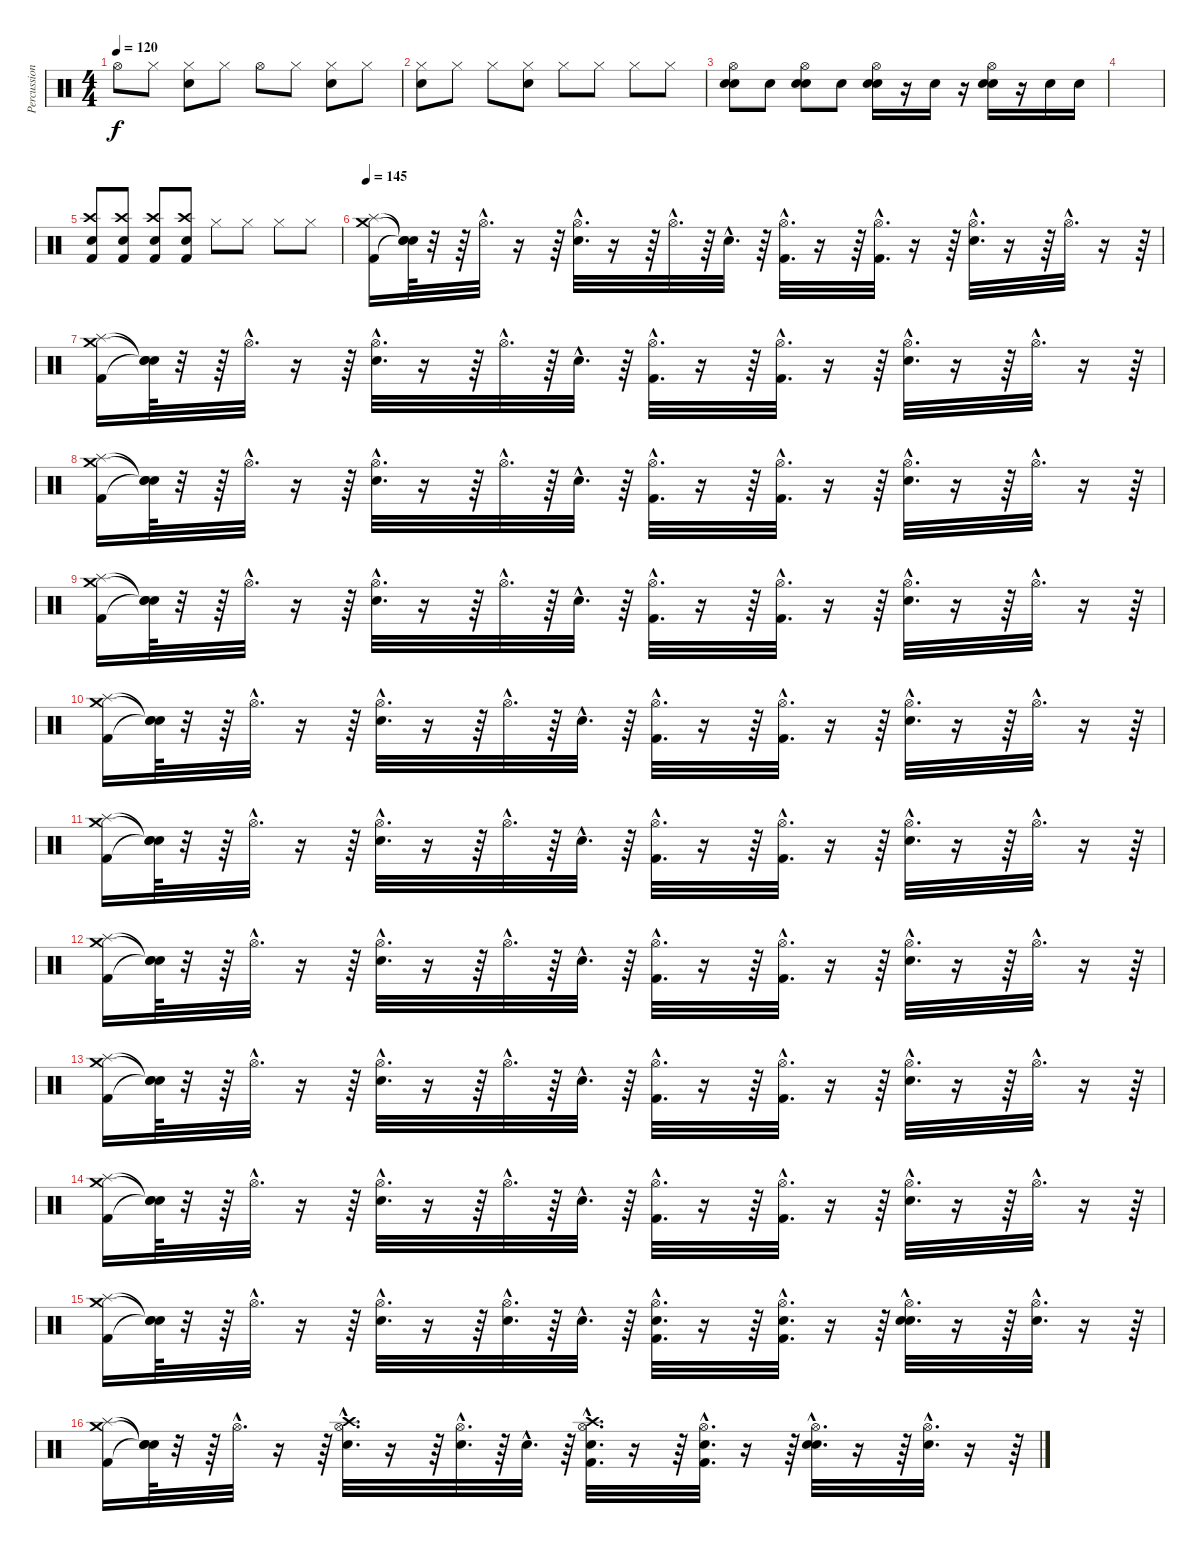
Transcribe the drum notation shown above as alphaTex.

\track ("Percussions" "Percussion") {instrument percussion}
\staff {score}
\articulation defaults
\ts (4 4)
\tempo 120
\clef neutral
\ks c "Hi-Hat (open)".8{dy f} "Hi-Hat (closed)".8
("Hi-Hat (closed)" "Snare (hit) 2").8 "Hi-Hat (closed)".8 "Hi-Hat (open)".8 "Hi-Hat (closed)".8 ("Hi-Hat (closed)" "Snare (hit) 2").8 "Hi-Hat (closed)".8 |
("Hi-Hat (closed)" "Snare (hit) 2").8 "Hi-Hat (closed)".8 "Hi-Hat (closed)".8 ("Hi-Hat (closed)" "Snare (hit) 2").8 "Hi-Hat (closed)".8 "Hi-Hat (closed)".8 "Hi-Hat (closed)".8 "Hi-Hat (closed)".8 |
("Hi-Hat (open)" "Electric Snare (hit)" "Snare (hit) 2").8{volume 6} "Electric Snare (hit)".8{volume 13} ("Hi-Hat (open)" "Electric Snare (hit)" "Snare (hit) 2").8 "Electric Snare (hit)".8 ("Hi-Hat (open)" "Electric Snare (hit)" "Snare (hit) 2").16 r.16 "Electric Snare (hit)".16 r.16 ("Hi-Hat (open)" "Electric Snare (hit)" "Snare (hit) 2").16 r.16 "Electric Snare (hit)".16 "Electric Snare (hit)".16 |
|
("Crash high (hit)" "Snare (hit) 2" "Kick (hit) 2").8 ("Crash high (hit)" "Snare (hit) 2" "Kick (hit) 2").8 ("Crash high (hit)" "Snare (hit) 2" "Kick (hit) 2").8 ("Crash high (hit)" "Snare (hit) 2" "Kick (hit) 2").8 "Hi-Hat (closed)".8 "Hi-Hat (closed)".8 "Hi-Hat (closed)".8 "Hi-Hat (closed)".8 |
\tempo 145
("Crash medium (hit)" "Splash (hit)" "Kick (hit) 2").16 ("Snare (hit)"{t} "Snare (hit)"{t} "Snare (hit)"{t}).64 r.32 r.64 "Hi-Hat (open)"{hac}.32{d} r.16 r.64 ("Hi-Hat (open)"{hac} "Electric Snare (hit)"{hac}).32{d} r.16 r.64 "Hi-Hat (open)"{hac}.32{d} r.64 "Electric Snare (hit)"{hac}.32{d} r.64 ("Hi-Hat (open)"{hac} "Kick (hit) 2"{hac}).32{d} r.16 r.64 ("Hi-Hat (open)"{hac} "Kick (hit) 2"{hac}).32{d} r.16 r.64 ("Hi-Hat (open)"{hac} "Electric Snare (hit)"{hac}).32{d} r.16 r.64 "Hi-Hat (open)"{hac}.32{d} r.16 r.64 |
("Crash medium (hit)" "Splash (hit)" "Kick (hit) 2").16 ("Snare (hit)"{t} "Snare (hit)"{t} "Snare (hit)"{t}).64 r.32 r.64 "Hi-Hat (open)"{hac}.32{d} r.16 r.64 ("Hi-Hat (open)"{hac} "Electric Snare (hit)"{hac}).32{d} r.16 r.64 "Hi-Hat (open)"{hac}.32{d} r.64 "Electric Snare (hit)"{hac}.32{d} r.64 ("Hi-Hat (open)"{hac} "Kick (hit) 2"{hac}).32{d} r.16 r.64 ("Hi-Hat (open)"{hac} "Kick (hit) 2"{hac}).32{d} r.16 r.64 ("Hi-Hat (open)"{hac} "Electric Snare (hit)"{hac}).32{d} r.16 r.64 "Hi-Hat (open)"{hac}.32{d} r.16 r.64 |
("Crash medium (hit)" "Splash (hit)" "Kick (hit) 2").16 ("Snare (hit)"{t} "Snare (hit)"{t} "Snare (hit)"{t}).64 r.32 r.64 "Hi-Hat (open)"{hac}.32{d} r.16 r.64 ("Hi-Hat (open)"{hac} "Electric Snare (hit)"{hac}).32{d} r.16 r.64 "Hi-Hat (open)"{hac}.32{d} r.64 "Electric Snare (hit)"{hac}.32{d} r.64 ("Hi-Hat (open)"{hac} "Kick (hit) 2"{hac}).32{d} r.16 r.64 ("Hi-Hat (open)"{hac} "Kick (hit) 2"{hac}).32{d} r.16 r.64 ("Hi-Hat (open)"{hac} "Electric Snare (hit)"{hac}).32{d} r.16 r.64 "Hi-Hat (open)"{hac}.32{d} r.16 r.64 |
("Crash medium (hit)" "Splash (hit)" "Kick (hit) 2").16 ("Snare (hit)"{t} "Snare (hit)"{t} "Snare (hit)"{t}).64 r.32 r.64 "Hi-Hat (open)"{hac}.32{d} r.16 r.64 ("Hi-Hat (open)"{hac} "Electric Snare (hit)"{hac}).32{d} r.16 r.64 "Hi-Hat (open)"{hac}.32{d} r.64 "Electric Snare (hit)"{hac}.32{d} r.64 ("Hi-Hat (open)"{hac} "Kick (hit) 2"{hac}).32{d} r.16 r.64 ("Hi-Hat (open)"{hac} "Kick (hit) 2"{hac}).32{d} r.16 r.64 ("Hi-Hat (open)"{hac} "Electric Snare (hit)"{hac}).32{d} r.16 r.64 "Hi-Hat (open)"{hac}.32{d} r.16 r.64 |
("Crash medium (hit)" "Splash (hit)" "Kick (hit) 2").16 ("Snare (hit)"{t} "Snare (hit)"{t} "Snare (hit)"{t}).64 r.32 r.64 "Hi-Hat (open)"{hac}.32{d} r.16 r.64 ("Hi-Hat (open)"{hac} "Electric Snare (hit)"{hac}).32{d} r.16 r.64 "Hi-Hat (open)"{hac}.32{d} r.64 "Electric Snare (hit)"{hac}.32{d} r.64 ("Hi-Hat (open)"{hac} "Kick (hit) 2"{hac}).32{d} r.16 r.64 ("Hi-Hat (open)"{hac} "Kick (hit) 2"{hac}).32{d} r.16 r.64 ("Hi-Hat (open)"{hac} "Electric Snare (hit)"{hac}).32{d} r.16 r.64 "Hi-Hat (open)"{hac}.32{d} r.16 r.64 |
("Crash medium (hit)" "Splash (hit)" "Kick (hit) 2").16 ("Snare (hit)"{t} "Snare (hit)"{t} "Snare (hit)"{t}).64 r.32 r.64 "Hi-Hat (open)"{hac}.32{d} r.16 r.64 ("Hi-Hat (open)"{hac} "Electric Snare (hit)"{hac}).32{d} r.16 r.64 "Hi-Hat (open)"{hac}.32{d} r.64 "Electric Snare (hit)"{hac}.32{d} r.64 ("Hi-Hat (open)"{hac} "Kick (hit) 2"{hac}).32{d} r.16 r.64 ("Hi-Hat (open)"{hac} "Kick (hit) 2"{hac}).32{d} r.16 r.64 ("Hi-Hat (open)"{hac} "Electric Snare (hit)"{hac}).32{d} r.16 r.64 "Hi-Hat (open)"{hac}.32{d} r.16 r.64 |
("Crash medium (hit)" "Splash (hit)" "Kick (hit) 2").16 ("Snare (hit)"{t} "Snare (hit)"{t} "Snare (hit)"{t}).64 r.32 r.64 "Hi-Hat (open)"{hac}.32{d} r.16 r.64 ("Hi-Hat (open)"{hac} "Electric Snare (hit)"{hac}).32{d} r.16 r.64 "Hi-Hat (open)"{hac}.32{d} r.64 "Electric Snare (hit)"{hac}.32{d} r.64 ("Hi-Hat (open)"{hac} "Kick (hit) 2"{hac}).32{d} r.16 r.64 ("Hi-Hat (open)"{hac} "Kick (hit) 2"{hac}).32{d} r.16 r.64 ("Hi-Hat (open)"{hac} "Electric Snare (hit)"{hac}).32{d} r.16 r.64 "Hi-Hat (open)"{hac}.32{d} r.16 r.64 |
("Crash medium (hit)" "Splash (hit)" "Kick (hit) 2").16 ("Snare (hit)"{t} "Snare (hit)"{t} "Snare (hit)"{t}).64 r.32 r.64 "Hi-Hat (open)"{hac}.32{d} r.16 r.64 ("Hi-Hat (open)"{hac} "Electric Snare (hit)"{hac}).32{d} r.16 r.64 "Hi-Hat (open)"{hac}.32{d} r.64 "Electric Snare (hit)"{hac}.32{d} r.64 ("Hi-Hat (open)"{hac} "Kick (hit) 2"{hac}).32{d} r.16 r.64 ("Hi-Hat (open)"{hac} "Kick (hit) 2"{hac}).32{d} r.16 r.64 ("Hi-Hat (open)"{hac} "Electric Snare (hit)"{hac}).32{d} r.16 r.64 "Hi-Hat (open)"{hac}.32{d} r.16 r.64 |
("Crash medium (hit)" "Splash (hit)" "Kick (hit) 2").16 ("Snare (hit)"{t} "Snare (hit)"{t} "Snare (hit)"{t}).64 r.32 r.64 "Hi-Hat (open)"{hac}.32{d} r.16 r.64 ("Hi-Hat (open)"{hac} "Electric Snare (hit)"{hac}).32{d} r.16 r.64 "Hi-Hat (open)"{hac}.32{d} r.64 "Electric Snare (hit)"{hac}.32{d} r.64 ("Hi-Hat (open)"{hac} "Kick (hit) 2"{hac}).32{d} r.16 r.64 ("Hi-Hat (open)"{hac} "Kick (hit) 2"{hac}).32{d} r.16 r.64 ("Hi-Hat (open)"{hac} "Electric Snare (hit)"{hac}).32{d} r.16 r.64 "Hi-Hat (open)"{hac}.32{d} r.16 r.64 |
("Crash medium (hit)" "Splash (hit)" "Kick (hit) 2").16 ("Snare (hit)"{t} "Snare (hit)"{t} "Snare (hit)"{t}).64 r.32 r.64 "Hi-Hat (open)"{hac}.32{d} r.16 r.64 ("Hi-Hat (open)"{hac} "Electric Snare (hit)"{hac}).32{d} r.16 r.64 ("Hi-Hat (open)"{hac} "Electric Snare (hit)"{hac}).32{d} r.64 "Electric Snare (hit)"{hac}.32{d} r.64 ("Hi-Hat (open)"{hac} "Kick (hit) 2"{hac} "Electric Snare (hit)"{hac}).32{d} r.16 r.64 ("Hi-Hat (open)"{hac} "Kick (hit) 2"{hac} "Electric Snare (hit)"{hac}).32{d} r.16 r.64 ("Hi-Hat (open)"{hac} "Electric Snare (hit)"{hac} "Electric Snare (hit)"{hac}).32{d} r.16 r.64 ("Hi-Hat (open)"{hac} "Electric Snare (hit)"{hac}).32{d} r.16 r.64 |
("Crash medium (hit)" "Splash (hit)" "Kick (hit) 2").16 ("Snare (hit)"{t} "Snare (hit)"{t} "Snare (hit)"{t}).64 r.32 r.64 "Hi-Hat (open)"{hac}.32{d} r.16 r.64 ("Hi-Hat (open)"{hac} "Electric Snare (hit)"{hac} "Crash high (hit)"{hac}).32{d} r.16 r.64 ("Hi-Hat (open)"{hac} "Electric Snare (hit)"{hac}).32{d} r.64 "Electric Snare (hit)"{hac}.32{d} r.64 ("Hi-Hat (open)"{hac} "Kick (hit) 2"{hac} "Electric Snare (hit)"{hac} "Crash high (hit)"{hac}).32{d} r.16 r.64 ("Hi-Hat (open)"{hac} "Kick (hit) 2"{hac} "Electric Snare (hit)"{hac}).32{d} r.16 r.64 ("Hi-Hat (open)"{hac} "Electric Snare (hit)"{hac} "Electric Snare (hit)"{hac}).32{d} r.16 r.64 ("Hi-Hat (open)"{hac} "Electric Snare (hit)"{hac}).32{d} r.16 r.64
